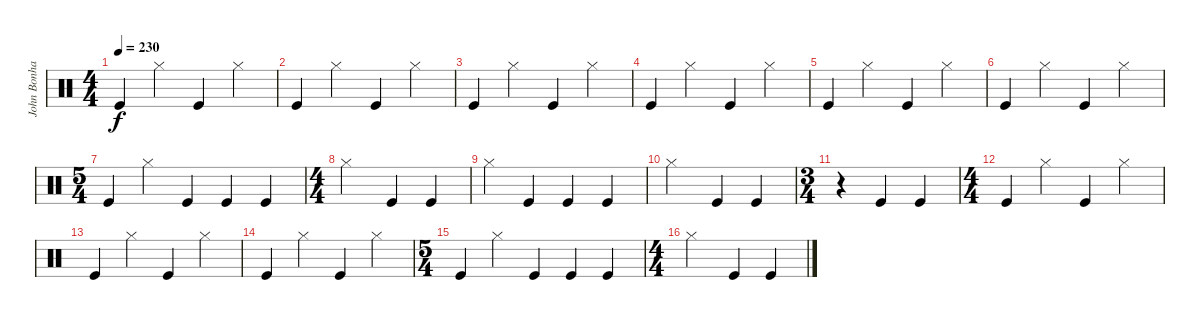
\track ("John Bonham" "John Bonha") {instrument percussion}
\staff {score}
\articulation defaults
\ts (4 4)
\tempo 230
\clef neutral
\ks c "Kick (hit)".4{dy f} "Hi-Hat (closed)".4 "Kick (hit)".4 "Hi-Hat (closed)".4
|
"Kick (hit)".4 "Hi-Hat (closed)".4 "Kick (hit)".4 "Hi-Hat (closed)".4 |
"Kick (hit)".4 "Hi-Hat (closed)".4 "Kick (hit)".4 "Hi-Hat (closed)".4 |
"Kick (hit)".4 "Hi-Hat (closed)".4 "Kick (hit)".4 "Hi-Hat (closed)".4 |
"Kick (hit)".4 "Hi-Hat (closed)".4 "Kick (hit)".4 "Hi-Hat (closed)".4 |
"Kick (hit)".4 "Hi-Hat (closed)".4 "Kick (hit)".4 "Hi-Hat (closed)".4 |
\ts (5 4)
"Kick (hit)".4 "Hi-Hat (closed)".4 "Kick (hit)".4 "Kick (hit)".4 "Kick (hit)".4 |
\ts (4 4)
"Hi-Hat (closed)".2 "Kick (hit)".4 "Kick (hit)".4 |
"Hi-Hat (closed)".4 "Kick (hit)".4 "Kick (hit)".4 "Kick (hit)".4 |
"Hi-Hat (closed)".2 "Kick (hit)".4 "Kick (hit)".4 |
\ts (3 4)
r.4 "Kick (hit)".4 "Kick (hit)".4 |
\ts (4 4)
"Kick (hit)".4 "Hi-Hat (closed)".4 "Kick (hit)".4 "Hi-Hat (closed)".4 |
"Kick (hit)".4 "Hi-Hat (closed)".4 "Kick (hit)".4 "Hi-Hat (closed)".4 |
"Kick (hit)".4 "Hi-Hat (closed)".4 "Kick (hit)".4 "Hi-Hat (closed)".4 |
\ts (5 4)
"Kick (hit)".4 "Hi-Hat (closed)".4 "Kick (hit)".4 "Kick (hit)".4 "Kick (hit)".4 |
\ts (4 4)
"Hi-Hat (closed)".2 "Kick (hit)".4 "Kick (hit)".4
